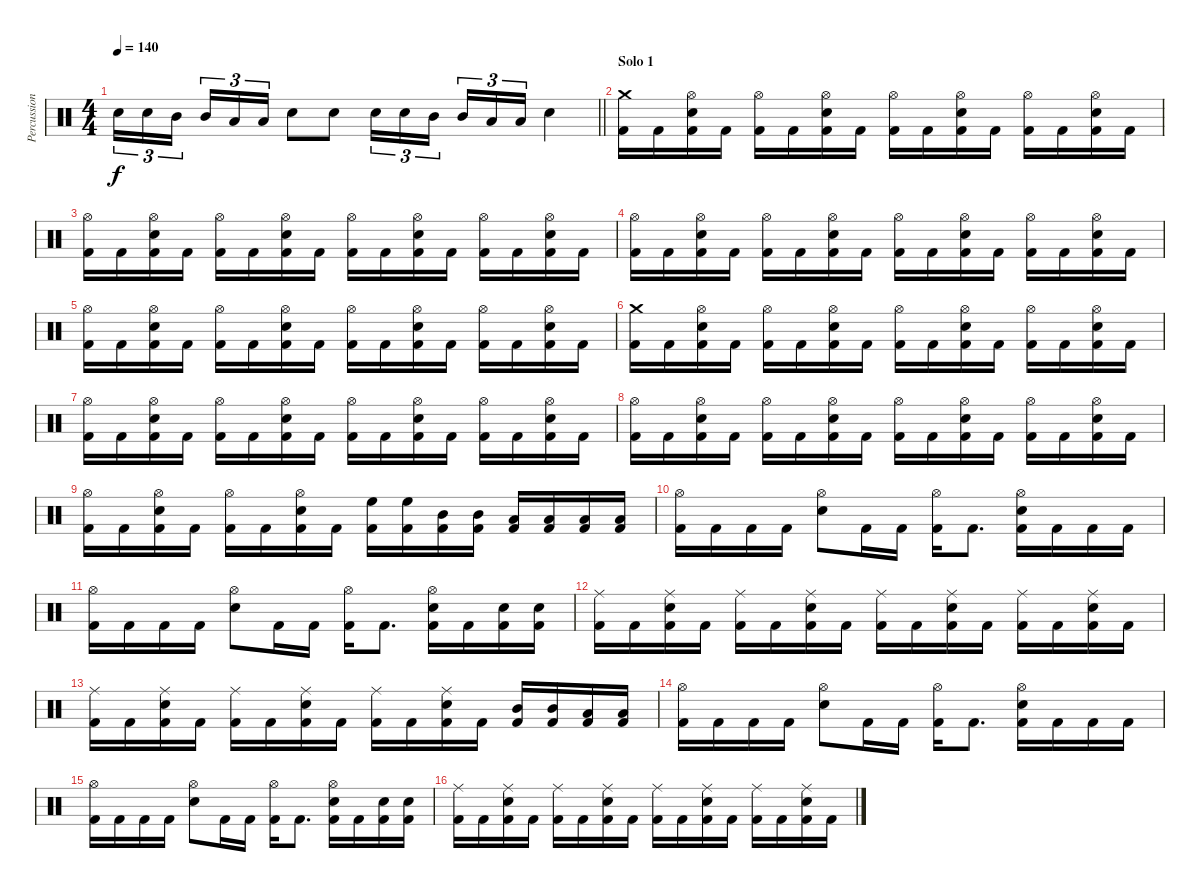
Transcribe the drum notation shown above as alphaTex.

\track ("Percussion" "Percussion") {instrument percussion}
\staff {score}
\articulation defaults
\ts (4 4)
\tempo 140
\clef neutral
\barLineRight lightlight
\ks c "Electric Snare (hit)".16{tu (3 2) dy f} "Electric Snare (hit)".16{tu (3 2)} "Mid Tom (hit)".16{tu (3 2) beam splitsecondary} "Mid Tom (hit)".16{tu (3 2)} "Low Floor Tom (hit)".16{tu (3 2)} "Low Floor Tom (hit)".16{tu (3 2)} "Electric Snare (hit)".8 "Electric Snare (hit)".8 "Electric Snare (hit)".16{tu (3 2)} "Electric Snare (hit)".16{tu (3 2)} "Mid Tom (hit)".16{tu (3 2) beam splitsecondary} "Mid Tom (hit)".16{tu (3 2)} "Low Floor Tom (hit)".16{tu (3 2)} "Low Floor Tom (hit)".16{tu (3 2)} "Electric Snare (hit)".4
|
\section ("" "Solo 1")
("Kick (hit) 2" "Crash medium (hit)").16 "Kick (hit) 2".16 ("Kick (hit) 2" "Electric Snare (hit)" "Hi-Hat (open)").16 "Kick (hit) 2".16 ("Kick (hit) 2" "Hi-Hat (open)").16 "Kick (hit) 2".16 ("Kick (hit) 2" "Electric Snare (hit)" "Hi-Hat (open)").16 "Kick (hit) 2".16 ("Kick (hit) 2" "Hi-Hat (open)").16 "Kick (hit) 2".16 ("Kick (hit) 2" "Electric Snare (hit)" "Hi-Hat (open)").16 "Kick (hit) 2".16 ("Kick (hit) 2" "Hi-Hat (open)").16 "Kick (hit) 2".16 ("Kick (hit) 2" "Electric Snare (hit)" "Hi-Hat (open)").16 "Kick (hit) 2".16 |
("Kick (hit) 2" "Hi-Hat (open)").16 "Kick (hit) 2".16 ("Kick (hit) 2" "Electric Snare (hit)" "Hi-Hat (open)").16 "Kick (hit) 2".16 ("Kick (hit) 2" "Hi-Hat (open)").16 "Kick (hit) 2".16 ("Kick (hit) 2" "Electric Snare (hit)" "Hi-Hat (open)").16 "Kick (hit) 2".16 ("Kick (hit) 2" "Hi-Hat (open)").16 "Kick (hit) 2".16 ("Kick (hit) 2" "Electric Snare (hit)" "Hi-Hat (open)").16 "Kick (hit) 2".16 ("Kick (hit) 2" "Hi-Hat (open)").16 "Kick (hit) 2".16 ("Kick (hit) 2" "Electric Snare (hit)" "Hi-Hat (open)").16 "Kick (hit) 2".16 |
("Kick (hit) 2" "Hi-Hat (open)").16 "Kick (hit) 2".16 ("Kick (hit) 2" "Electric Snare (hit)" "Hi-Hat (open)").16 "Kick (hit) 2".16 ("Kick (hit) 2" "Hi-Hat (open)").16 "Kick (hit) 2".16 ("Kick (hit) 2" "Electric Snare (hit)" "Hi-Hat (open)").16 "Kick (hit) 2".16 ("Kick (hit) 2" "Hi-Hat (open)").16 "Kick (hit) 2".16 ("Kick (hit) 2" "Electric Snare (hit)" "Hi-Hat (open)").16 "Kick (hit) 2".16 ("Kick (hit) 2" "Hi-Hat (open)").16 "Kick (hit) 2".16 ("Kick (hit) 2" "Electric Snare (hit)" "Hi-Hat (open)").16 "Kick (hit) 2".16 |
("Kick (hit) 2" "Hi-Hat (open)").16 "Kick (hit) 2".16 ("Kick (hit) 2" "Electric Snare (hit)" "Hi-Hat (open)").16 "Kick (hit) 2".16 ("Kick (hit) 2" "Hi-Hat (open)").16 "Kick (hit) 2".16 ("Kick (hit) 2" "Electric Snare (hit)" "Hi-Hat (open)").16 "Kick (hit) 2".16 ("Kick (hit) 2" "Hi-Hat (open)").16 "Kick (hit) 2".16 ("Kick (hit) 2" "Electric Snare (hit)" "Hi-Hat (open)").16 "Kick (hit) 2".16 ("Kick (hit) 2" "Hi-Hat (open)").16 "Kick (hit) 2".16 ("Kick (hit) 2" "Electric Snare (hit)" "Hi-Hat (open)").16 "Kick (hit) 2".16 |
("Kick (hit) 2" "Crash medium (hit)").16 "Kick (hit) 2".16 ("Kick (hit) 2" "Electric Snare (hit)" "Hi-Hat (open)").16 "Kick (hit) 2".16 ("Kick (hit) 2" "Hi-Hat (open)").16 "Kick (hit) 2".16 ("Kick (hit) 2" "Electric Snare (hit)" "Hi-Hat (open)").16 "Kick (hit) 2".16 ("Kick (hit) 2" "Hi-Hat (open)").16 "Kick (hit) 2".16 ("Kick (hit) 2" "Electric Snare (hit)" "Hi-Hat (open)").16 "Kick (hit) 2".16 ("Kick (hit) 2" "Hi-Hat (open)").16 "Kick (hit) 2".16 ("Kick (hit) 2" "Electric Snare (hit)" "Hi-Hat (open)").16 "Kick (hit) 2".16 |
("Kick (hit) 2" "Hi-Hat (open)").16 "Kick (hit) 2".16 ("Kick (hit) 2" "Electric Snare (hit)" "Hi-Hat (open)").16 "Kick (hit) 2".16 ("Kick (hit) 2" "Hi-Hat (open)").16 "Kick (hit) 2".16 ("Kick (hit) 2" "Electric Snare (hit)" "Hi-Hat (open)").16 "Kick (hit) 2".16 ("Kick (hit) 2" "Hi-Hat (open)").16 "Kick (hit) 2".16 ("Kick (hit) 2" "Electric Snare (hit)" "Hi-Hat (open)").16 "Kick (hit) 2".16 ("Kick (hit) 2" "Hi-Hat (open)").16 "Kick (hit) 2".16 ("Kick (hit) 2" "Electric Snare (hit)" "Hi-Hat (open)").16 "Kick (hit) 2".16 |
("Kick (hit) 2" "Hi-Hat (open)").16 "Kick (hit) 2".16 ("Kick (hit) 2" "Electric Snare (hit)" "Hi-Hat (open)").16 "Kick (hit) 2".16 ("Kick (hit) 2" "Hi-Hat (open)").16 "Kick (hit) 2".16 ("Kick (hit) 2" "Electric Snare (hit)" "Hi-Hat (open)").16 "Kick (hit) 2".16 ("Kick (hit) 2" "Hi-Hat (open)").16 "Kick (hit) 2".16 ("Kick (hit) 2" "Electric Snare (hit)" "Hi-Hat (open)").16 "Kick (hit) 2".16 ("Kick (hit) 2" "Hi-Hat (open)").16 "Kick (hit) 2".16 ("Kick (hit) 2" "Electric Snare (hit)" "Hi-Hat (open)").16 "Kick (hit) 2".16 |
("Kick (hit) 2" "Hi-Hat (open)").16 "Kick (hit) 2".16 ("Kick (hit) 2" "Electric Snare (hit)" "Hi-Hat (open)").16 "Kick (hit) 2".16 ("Kick (hit) 2" "Hi-Hat (open)").16 "Kick (hit) 2".16 ("Kick (hit) 2" "Electric Snare (hit)" "Hi-Hat (open)").16 "Kick (hit) 2".16 ("Kick (hit) 2" "High Floor Tom (hit)").16 ("Kick (hit) 2" "High Floor Tom (hit)").16 ("Kick (hit) 2" "Mid Tom (hit)").16 ("Kick (hit) 2" "Mid Tom (hit)").16 ("Kick (hit) 2" "Low Floor Tom (hit)").16 ("Kick (hit) 2" "Low Floor Tom (hit)").16 ("Kick (hit) 2" "Low Floor Tom (hit)").16 ("Kick (hit) 2" "Low Floor Tom (hit)").16 |
("Kick (hit) 2" "Hi-Hat (open)").16 "Kick (hit) 2".16 "Kick (hit) 2".16 "Kick (hit) 2".16 ("Electric Snare (hit)" "Hi-Hat (open)").8 "Kick (hit) 2".16 "Kick (hit) 2".16 ("Kick (hit) 2" "Hi-Hat (open)").16 "Kick (hit) 2".8{d} ("Kick (hit) 2" "Electric Snare (hit)" "Hi-Hat (open)").16 "Kick (hit) 2".16 "Kick (hit) 2".16 "Kick (hit) 2".16 |
("Kick (hit) 2" "Hi-Hat (open)").16 "Kick (hit) 2".16 "Kick (hit) 2".16 "Kick (hit) 2".16 ("Electric Snare (hit)" "Hi-Hat (open)").8 "Kick (hit) 2".16 "Kick (hit) 2".16 ("Kick (hit) 2" "Hi-Hat (open)").16 "Kick (hit) 2".8{d} ("Kick (hit) 2" "Electric Snare (hit)" "Hi-Hat (open)").16 "Kick (hit) 2".16 ("Kick (hit) 2" "Electric Snare (hit)").16 ("Kick (hit) 2" "Electric Snare (hit)").16 |
("Kick (hit) 2" "Ride (middle)").16 "Kick (hit) 2".16 ("Kick (hit) 2" "Electric Snare (hit)" "Ride (middle)").16 "Kick (hit) 2".16 ("Kick (hit) 2" "Ride (middle)").16 "Kick (hit) 2".16 ("Kick (hit) 2" "Electric Snare (hit)" "Ride (middle)").16 "Kick (hit) 2".16 ("Kick (hit) 2" "Ride (middle)").16 "Kick (hit) 2".16 ("Kick (hit) 2" "Electric Snare (hit)" "Ride (middle)").16 "Kick (hit) 2".16 ("Kick (hit) 2" "Ride (middle)").16 "Kick (hit) 2".16 ("Kick (hit) 2" "Electric Snare (hit)" "Ride (middle)").16 "Kick (hit) 2".16 |
("Kick (hit) 2" "Ride (middle)").16 "Kick (hit) 2".16 ("Kick (hit) 2" "Electric Snare (hit)" "Ride (middle)").16 "Kick (hit) 2".16 ("Kick (hit) 2" "Ride (middle)").16 "Kick (hit) 2".16 ("Kick (hit) 2" "Electric Snare (hit)" "Ride (middle)").16 "Kick (hit) 2".16 ("Kick (hit) 2" "Ride (middle)").16 "Kick (hit) 2".16 ("Kick (hit) 2" "Electric Snare (hit)" "Ride (middle)").16 "Kick (hit) 2".16 ("Kick (hit) 2" "Mid Tom (hit)").16 ("Kick (hit) 2" "Mid Tom (hit)").16 ("Kick (hit) 2" "Low Floor Tom (hit)").16 ("Kick (hit) 2" "Low Floor Tom (hit)").16 |
("Kick (hit) 2" "Hi-Hat (open)").16 "Kick (hit) 2".16 "Kick (hit) 2".16 "Kick (hit) 2".16 ("Electric Snare (hit)" "Hi-Hat (open)").8 "Kick (hit) 2".16 "Kick (hit) 2".16 ("Kick (hit) 2" "Hi-Hat (open)").16 "Kick (hit) 2".8{d} ("Kick (hit) 2" "Electric Snare (hit)" "Hi-Hat (open)").16 "Kick (hit) 2".16 "Kick (hit) 2".16 "Kick (hit) 2".16 |
("Kick (hit) 2" "Hi-Hat (open)").16 "Kick (hit) 2".16 "Kick (hit) 2".16 "Kick (hit) 2".16 ("Electric Snare (hit)" "Hi-Hat (open)").8 "Kick (hit) 2".16 "Kick (hit) 2".16 ("Kick (hit) 2" "Hi-Hat (open)").16 "Kick (hit) 2".8{d} ("Kick (hit) 2" "Electric Snare (hit)" "Hi-Hat (open)").16 "Kick (hit) 2".16 ("Kick (hit) 2" "Electric Snare (hit)").16 ("Kick (hit) 2" "Electric Snare (hit)").16 |
("Kick (hit) 2" "Ride (middle)").16 "Kick (hit) 2".16 ("Kick (hit) 2" "Electric Snare (hit)" "Ride (middle)").16 "Kick (hit) 2".16 ("Kick (hit) 2" "Ride (middle)").16 "Kick (hit) 2".16 ("Kick (hit) 2" "Electric Snare (hit)" "Ride (middle)").16 "Kick (hit) 2".16 ("Kick (hit) 2" "Ride (middle)").16 "Kick (hit) 2".16 ("Kick (hit) 2" "Electric Snare (hit)" "Ride (middle)").16 "Kick (hit) 2".16 ("Kick (hit) 2" "Ride (middle)").16 "Kick (hit) 2".16 ("Kick (hit) 2" "Electric Snare (hit)" "Ride (middle)").16 "Kick (hit) 2".16
